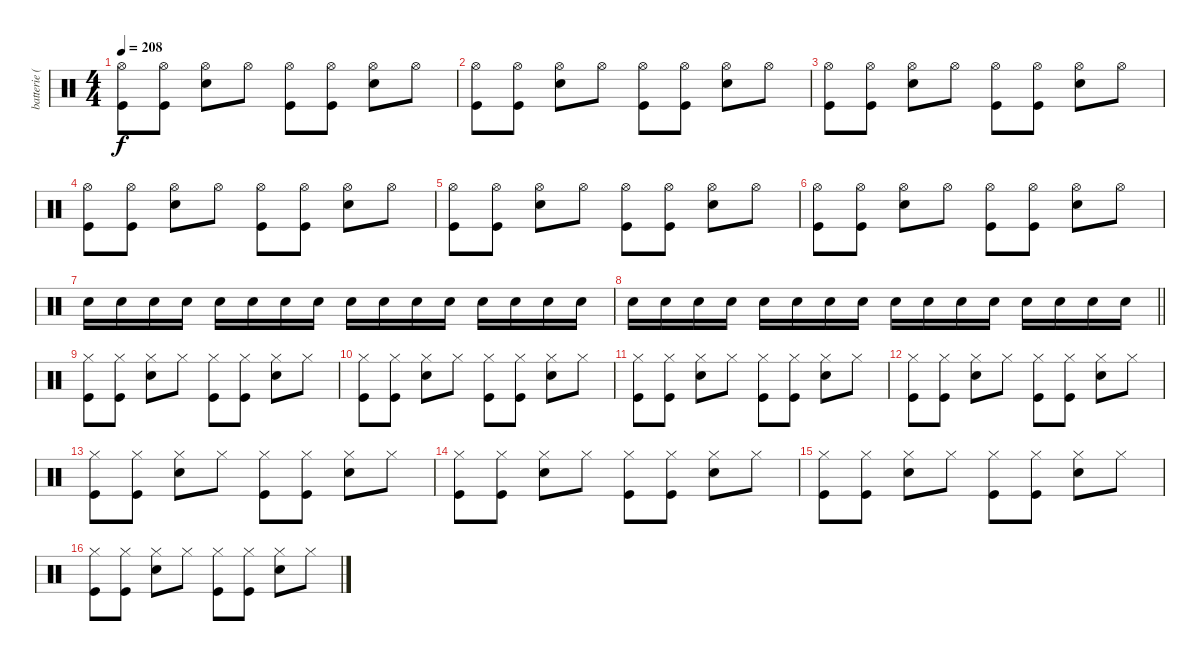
\track ("batterie ( Guillaume ) " "batterie (") {instrument percussion}
\staff {score}
\articulation defaults
\ts (4 4)
\tempo 208
\clef neutral
\ks c
("Hi-Hat (open)" "Kick (hit)").8{dy f} ("Hi-Hat (open)" "Kick (hit)").8 ("Hi-Hat (open)" "Electric Snare (hit)").8 "Hi-Hat (open)".8 ("Hi-Hat (open)" "Kick (hit)").8 ("Hi-Hat (open)" "Kick (hit)").8 ("Hi-Hat (open)" "Electric Snare (hit)").8 "Hi-Hat (open)".8 |
("Hi-Hat (open)" "Kick (hit)").8 ("Hi-Hat (open)" "Kick (hit)").8 ("Hi-Hat (open)" "Electric Snare (hit)").8 "Hi-Hat (open)".8 ("Hi-Hat (open)" "Kick (hit)").8 ("Hi-Hat (open)" "Kick (hit)").8 ("Hi-Hat (open)" "Electric Snare (hit)").8 "Hi-Hat (open)".8 |
("Hi-Hat (open)" "Kick (hit)").8 ("Hi-Hat (open)" "Kick (hit)").8 ("Hi-Hat (open)" "Electric Snare (hit)").8 "Hi-Hat (open)".8 ("Hi-Hat (open)" "Kick (hit)").8 ("Hi-Hat (open)" "Kick (hit)").8 ("Hi-Hat (open)" "Electric Snare (hit)").8 "Hi-Hat (open)".8 |
("Hi-Hat (open)" "Kick (hit)").8 ("Hi-Hat (open)" "Kick (hit)").8 ("Hi-Hat (open)" "Electric Snare (hit)").8 "Hi-Hat (open)".8 ("Hi-Hat (open)" "Kick (hit)").8 ("Hi-Hat (open)" "Kick (hit)").8 ("Hi-Hat (open)" "Electric Snare (hit)").8 "Hi-Hat (open)".8 |
("Hi-Hat (open)" "Kick (hit)").8 ("Hi-Hat (open)" "Kick (hit)").8 ("Hi-Hat (open)" "Electric Snare (hit)").8 "Hi-Hat (open)".8 ("Hi-Hat (open)" "Kick (hit)").8 ("Hi-Hat (open)" "Kick (hit)").8 ("Hi-Hat (open)" "Electric Snare (hit)").8 "Hi-Hat (open)".8 |
("Hi-Hat (open)" "Kick (hit)").8 ("Hi-Hat (open)" "Kick (hit)").8 ("Hi-Hat (open)" "Electric Snare (hit)").8 "Hi-Hat (open)".8 ("Hi-Hat (open)" "Kick (hit)").8 ("Hi-Hat (open)" "Kick (hit)").8 ("Hi-Hat (open)" "Electric Snare (hit)").8 "Hi-Hat (open)".8 |
"Electric Snare (hit)".16 "Electric Snare (hit)".16 "Electric Snare (hit)".16 "Electric Snare (hit)".16 "Electric Snare (hit)".16 "Electric Snare (hit)".16 "Electric Snare (hit)".16 "Electric Snare (hit)".16 "Electric Snare (hit)".16 "Electric Snare (hit)".16 "Electric Snare (hit)".16 "Electric Snare (hit)".16 "Electric Snare (hit)".16 "Electric Snare (hit)".16 "Electric Snare (hit)".16 "Electric Snare (hit)".16 |
\barLineRight lightlight "Electric Snare (hit)".16 "Electric Snare (hit)".16 "Electric Snare (hit)".16 "Electric Snare (hit)".16 "Electric Snare (hit)".16 "Electric Snare (hit)".16 "Electric Snare (hit)".16 "Electric Snare (hit)".16 "Electric Snare (hit)".16 "Electric Snare (hit)".16 "Electric Snare (hit)".16 "Electric Snare (hit)".16 "Electric Snare (hit)".16 "Electric Snare (hit)".16 "Electric Snare (hit)".16 "Electric Snare (hit)".16
|
("Hi-Hat (closed)" "Kick (hit)").8 ("Hi-Hat (closed)" "Kick (hit)").8 ("Hi-Hat (closed)" "Electric Snare (hit)").8 "Hi-Hat (closed)".8 ("Hi-Hat (closed)" "Kick (hit)").8 ("Hi-Hat (closed)" "Kick (hit)").8 ("Hi-Hat (closed)" "Electric Snare (hit)").8 "Hi-Hat (closed)".8 |
("Hi-Hat (closed)" "Kick (hit)").8 ("Hi-Hat (closed)" "Kick (hit)").8 ("Hi-Hat (closed)" "Electric Snare (hit)").8 "Hi-Hat (closed)".8 ("Hi-Hat (closed)" "Kick (hit)").8 ("Hi-Hat (closed)" "Kick (hit)").8 ("Hi-Hat (closed)" "Electric Snare (hit)").8 "Hi-Hat (closed)".8 |
("Hi-Hat (closed)" "Kick (hit)").8 ("Hi-Hat (closed)" "Kick (hit)").8 ("Hi-Hat (closed)" "Electric Snare (hit)").8 "Hi-Hat (closed)".8 ("Hi-Hat (closed)" "Kick (hit)").8 ("Hi-Hat (closed)" "Kick (hit)").8 ("Hi-Hat (closed)" "Electric Snare (hit)").8 "Hi-Hat (closed)".8 |
("Hi-Hat (closed)" "Kick (hit)").8 ("Hi-Hat (closed)" "Kick (hit)").8 ("Hi-Hat (closed)" "Electric Snare (hit)").8 "Hi-Hat (closed)".8 ("Hi-Hat (closed)" "Kick (hit)").8 ("Hi-Hat (closed)" "Kick (hit)").8 ("Hi-Hat (closed)" "Electric Snare (hit)").8 "Hi-Hat (closed)".8 |
("Hi-Hat (closed)" "Kick (hit)").8 ("Hi-Hat (closed)" "Kick (hit)").8 ("Hi-Hat (closed)" "Electric Snare (hit)").8 "Hi-Hat (closed)".8 ("Hi-Hat (closed)" "Kick (hit)").8 ("Hi-Hat (closed)" "Kick (hit)").8 ("Hi-Hat (closed)" "Electric Snare (hit)").8 "Hi-Hat (closed)".8 |
("Hi-Hat (closed)" "Kick (hit)").8 ("Hi-Hat (closed)" "Kick (hit)").8 ("Hi-Hat (closed)" "Electric Snare (hit)").8 "Hi-Hat (closed)".8 ("Hi-Hat (closed)" "Kick (hit)").8 ("Hi-Hat (closed)" "Kick (hit)").8 ("Hi-Hat (closed)" "Electric Snare (hit)").8 "Hi-Hat (closed)".8 |
("Hi-Hat (closed)" "Kick (hit)").8 ("Hi-Hat (closed)" "Kick (hit)").8 ("Hi-Hat (closed)" "Electric Snare (hit)").8 "Hi-Hat (closed)".8 ("Hi-Hat (closed)" "Kick (hit)").8 ("Hi-Hat (closed)" "Kick (hit)").8 ("Hi-Hat (closed)" "Electric Snare (hit)").8 "Hi-Hat (closed)".8 |
("Hi-Hat (closed)" "Kick (hit)").8 ("Hi-Hat (closed)" "Kick (hit)").8 ("Hi-Hat (closed)" "Electric Snare (hit)").8 "Hi-Hat (closed)".8 ("Hi-Hat (closed)" "Kick (hit)").8 ("Hi-Hat (closed)" "Kick (hit)").8 ("Hi-Hat (closed)" "Electric Snare (hit)").8 "Hi-Hat (closed)".8
